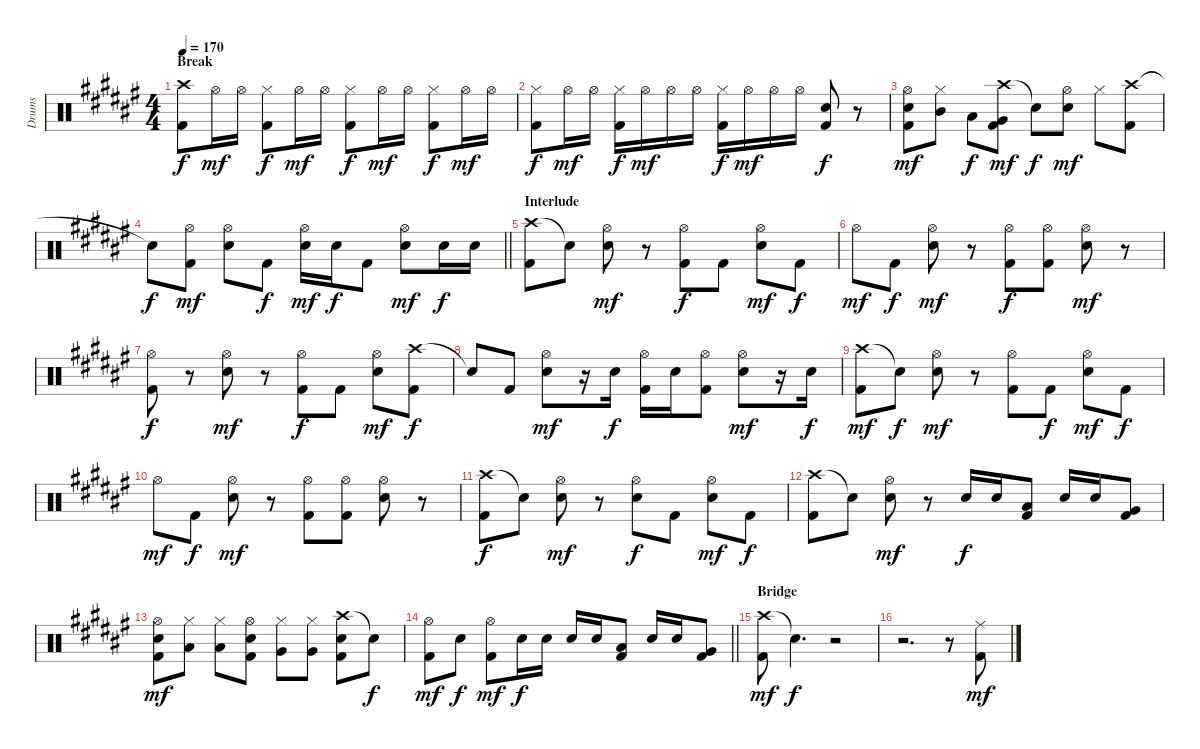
\track ("Drums" "Drums") {instrument percussion}
\staff {score}
\articulation defaults
\ts (4 4)
\section ("" "Break")
\tempo 170
\clef neutral
\ks f#
("Crash high (hit)" "Kick (hit) 2").8{dy f} "Hi-Hat (open)".16{dy mf} "Hi-Hat (open)".16 ("Hi-Hat (closed)" "Kick (hit) 2").8{dy f} "Hi-Hat (open)".16{dy mf} "Hi-Hat (open)".16 ("Hi-Hat (closed)" "Kick (hit) 2").8{dy f} "Hi-Hat (open)".16{dy mf} "Hi-Hat (open)".16 ("Hi-Hat (closed)" "Kick (hit) 2").8{dy f} "Hi-Hat (open)".16{dy mf} "Hi-Hat (open)".16 |
("Hi-Hat (closed)" "Kick (hit) 2").8{dy f} "Hi-Hat (open)".16{dy mf} "Hi-Hat (open)".16 ("Hi-Hat (closed)" "Kick (hit) 2").16{dy f} "Hi-Hat (open)".16{dy mf} "Hi-Hat (open)".16 "Hi-Hat (open)".16 ("Hi-Hat (closed)" "Kick (hit) 2").16{dy f} "Hi-Hat (open)".16{dy mf} "Hi-Hat (open)".16 "Hi-Hat (open)".16 ("Snare (hit) 2" "Kick (hit) 2").8{dy f} r.8 |
("Hi-Hat (open)" "Snare (hit) 2" "Kick (hit) 2").8{dy mf} ("Hi-Hat (closed)" "Mid Tom (hit)").8 "Low Tom (hit)".8{dy f} ("Crash high (hit)" "Very Low Tom (hit)" "Kick (hit) 2").8{dy mf} "Snare (hit)"{t}.8{dy f} ("Hi-Hat (open)" "Snare (hit) 2").8{dy mf} "Hi-Hat (closed)".8 ("Crash high (hit)" "Kick (hit) 2").8 |
\barLineRight lightlight "Snare (hit)"{t}.8{dy f}
("Hi-Hat (open)" "Kick (hit) 2").8{dy mf} ("Hi-Hat (open)" "Snare (hit) 2").8 "Kick (hit) 2".8{dy f} ("Hi-Hat (open)" "Snare (hit) 2").16{dy mf} "Snare (hit) 2".16{dy f} "Kick (hit) 2".8 ("Hi-Hat (open)" "Snare (hit) 2").8{dy mf} "Snare (hit) 2".16{dy f} "Snare (hit) 2".16 |
\section ("" "Interlude")
("Crash high (hit)" "Kick (hit) 2").8 "Snare (hit)"{t}.8 ("Hi-Hat (open)" "Snare (hit) 2").8{dy mf} r.8 ("Hi-Hat (open)" "Kick (hit) 2").8{dy f} "Kick (hit) 2".8 ("Hi-Hat (open)" "Snare (hit) 2").8{dy mf} "Kick (hit) 2".8{dy f} |
"Hi-Hat (open)".8{dy mf} "Kick (hit) 2".8{dy f} ("Hi-Hat (open)" "Snare (hit) 2").8{dy mf} r.8 ("Hi-Hat (open)" "Kick (hit) 2").8{dy f} ("Hi-Hat (open)" "Kick (hit) 2").8 ("Hi-Hat (open)" "Snare (hit) 2").8{dy mf} r.8 |
("Hi-Hat (open)" "Kick (hit) 2").8{dy f} r.8 ("Hi-Hat (open)" "Snare (hit) 2").8{dy mf} r.8 ("Hi-Hat (open)" "Kick (hit) 2").8{dy f} "Kick (hit) 2".8 ("Hi-Hat (open)" "Snare (hit) 2").8{dy mf} ("Crash high (hit)" "Kick (hit) 2").8{dy f} |
"Snare (hit)"{t}.8 "Kick (hit) 2".8 ("Hi-Hat (open)" "Snare (hit) 2").8{dy mf} r.16 "Snare (hit) 2".16{dy f} ("Hi-Hat (open)" "Kick (hit) 2").16 "Snare (hit) 2".16 ("Hi-Hat (open)" "Kick (hit) 2").8 ("Hi-Hat (open)" "Snare (hit) 2").8{dy mf} r.16 "Snare (hit) 2".16{dy f} |
("Crash high (hit)" "Kick (hit) 2").8{dy mf} "Snare (hit)"{t}.8{dy f} ("Hi-Hat (open)" "Snare (hit) 2").8{dy mf} r.8 ("Hi-Hat (open)" "Kick (hit) 2").8 "Kick (hit) 2".8{dy f} ("Hi-Hat (open)" "Snare (hit) 2").8{dy mf} "Kick (hit) 2".8{dy f} |
"Hi-Hat (open)".8{dy mf} "Kick (hit) 2".8{dy f} ("Hi-Hat (open)" "Snare (hit) 2").8{dy mf} r.8 ("Hi-Hat (open)" "Kick (hit) 2").8 ("Hi-Hat (open)" "Kick (hit) 2").8 ("Hi-Hat (open)" "Snare (hit) 2").8 r.8 |
("Crash high (hit)" "Kick (hit) 2").8{dy f} "Snare (hit)"{t}.8 ("Hi-Hat (open)" "Snare (hit) 2").8{dy mf} r.8 ("Hi-Hat (open)" "Snare (hit) 2").8{dy f} "Kick (hit) 2".8 ("Hi-Hat (open)" "Snare (hit) 2").8{dy mf} "Kick (hit) 2".8{dy f} |
("Crash high (hit)" "Kick (hit) 2").8 "Snare (hit)"{t}.8 ("Hi-Hat (open)" "Snare (hit) 2").8{dy mf} r.8 "Snare (hit) 2".16{dy f} "Snare (hit) 2".16 ("Low Tom (hit)" "Kick (hit) 2").8 "Snare (hit) 2".16 "Snare (hit) 2".16 ("Very Low Tom (hit)" "Kick (hit) 2").8 |
("Hi-Hat (open)" "Snare (hit) 2" "Kick (hit) 2").8{dy mf} ("Hi-Hat (closed)" "Low Tom (hit)").8 ("Hi-Hat (closed)" "Low Tom (hit)").8 ("Hi-Hat (open)" "Snare (hit) 2" "Kick (hit) 2").8 ("Hi-Hat (closed)" "Very Low Tom (hit)").8 ("Hi-Hat (closed)" "Very Low Tom (hit)").8 ("Crash high (hit)" "Snare (hit) 2" "Kick (hit) 2").8 "Snare (hit)"{t}.8{dy f} |
\barLineRight lightlight
("Hi-Hat (open)" "Kick (hit) 2").8{dy mf} "Snare (hit) 2".8{dy f} ("Hi-Hat (open)" "Kick (hit) 2").8{dy mf} "Snare (hit) 2".16{dy f} "Snare (hit) 2".16 "Snare (hit) 2".16 "Snare (hit) 2".16 ("Low Tom (hit)" "Kick (hit) 2").8 "Snare (hit) 2".16 "Snare (hit) 2".16 ("Very Low Tom (hit)" "Kick (hit) 2").8 |
\section ("" "Bridge")
("Crash high (hit)" "Kick (hit) 2").8{dy mf} "Snare (hit)"{t}.4{d dy f} r.2 |
r.2{d} r.8 ("Ride (middle)" "Kick (hit) 2").8{dy mf}
